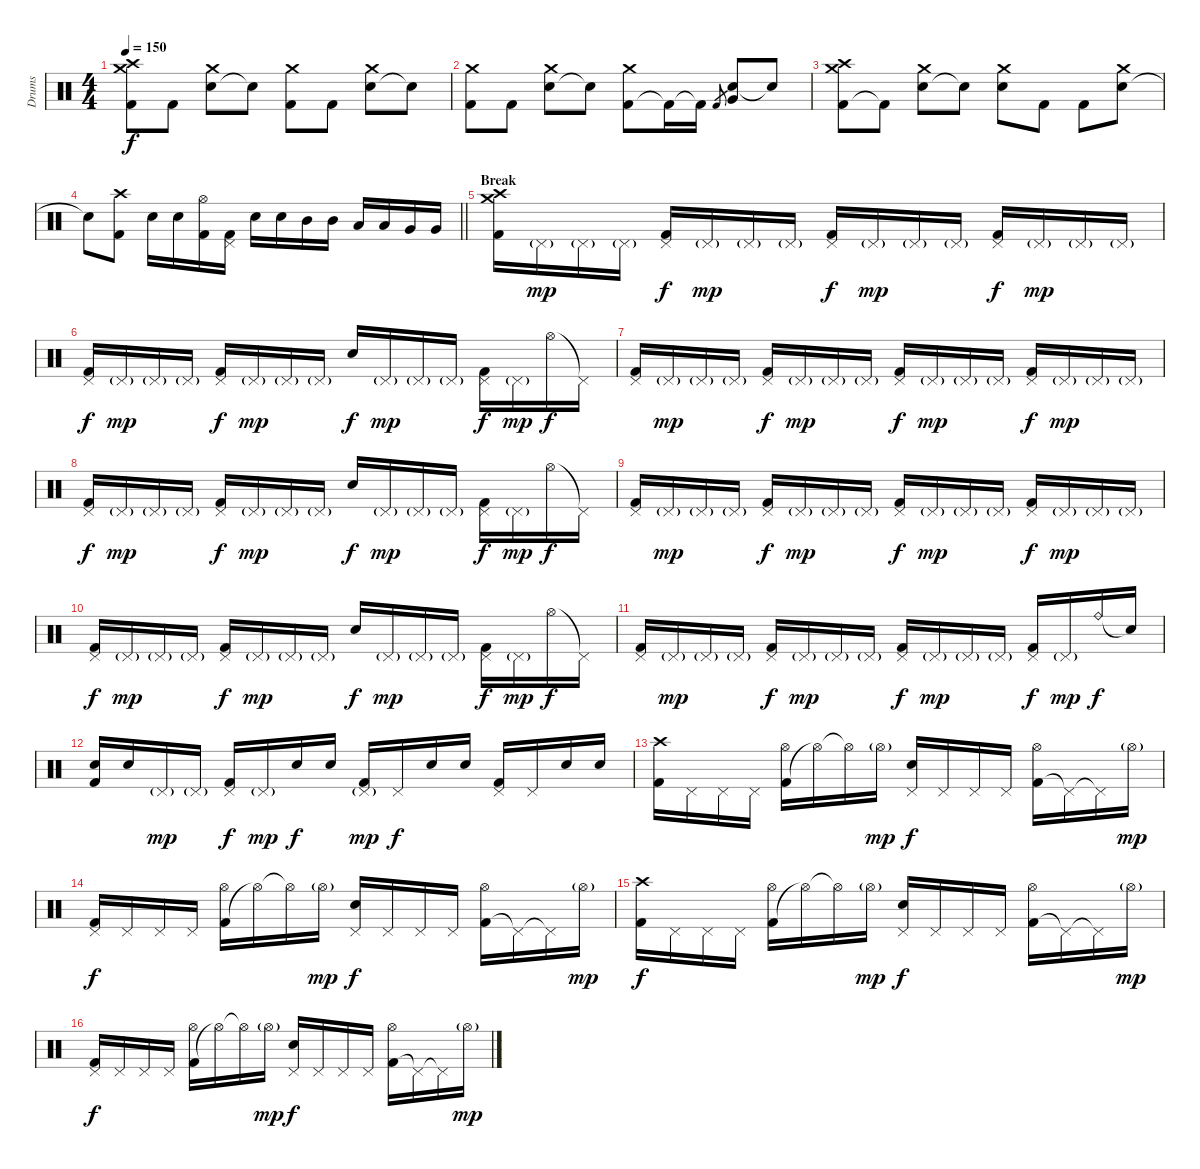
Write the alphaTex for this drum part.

\track ("Drums" "Drums") {instrument percussion}
\staff {score}
\articulation defaults
\ts (4 4)
\tempo 150
\clef neutral
\ks c
("Kick (hit) 2" "Crash medium (hit)" "Crash high (hit)").8{dy f} "Kick (hit) 2".8 ("Electric Snare (hit)" "Crash medium (hit)").8 "Snare (hit)"{t}.8 ("Kick (hit) 2" "Crash medium (hit)").8 "Kick (hit) 2".8 ("Electric Snare (hit)" "Crash medium (hit)").8 "Snare (hit)"{t}.8 |
("Kick (hit) 2" "Crash medium (hit)").8 "Kick (hit) 2".8 ("Electric Snare (hit)" "Crash medium (hit)").8 "Snare (hit)"{t}.8 ("Kick (hit) 2" "Crash medium (hit)").8 "Kick (hit) 2"{t}.16 "Kick (hit) 2"{t}.16 "Kick (hit) 2".8{gr} ("Electric Snare (hit)" "Very Low Tom (hit)").8 "Snare (hit)"{t}.8 |
("Kick (hit) 2" "Crash medium (hit)" "Crash high (hit)").8 "Kick (hit) 2"{t}.8 ("Electric Snare (hit)" "Crash medium (hit)").8 "Snare (hit)"{t}.8 ("Electric Snare (hit)" "Crash medium (hit)").8 "Kick (hit) 2".8 "Kick (hit) 2".8 ("Electric Snare (hit)" "Crash medium (hit)").8 |
\barLineRight lightlight "Snare (hit)"{t}.8
("Kick (hit) 2" "Crash high (hit)").8 "Electric Snare (hit)".16 "Electric Snare (hit)".16 ("Kick (hit) 2" "Hi-Hat (open)").16 ("Kick (hit) 2" "Pedal Hi-Hat (hit)").16 "Electric Snare (hit)".16 "Electric Snare (hit)".16 "Mid Tom (hit)".16 "Mid Tom (hit)".16 "Low Tom (hit)".16 "Low Tom (hit)".16 "Very Low Tom (hit)".16 "Very Low Tom (hit)".16 |
\section ("" "Break")
("Kick (hit) 2" "Crash medium (hit)" "Crash high (hit)").16 "Pedal Hi-Hat (hit)"{g}.16{dy mp} "Pedal Hi-Hat (hit)"{g}.16 "Pedal Hi-Hat (hit)"{g}.16 ("Kick (hit) 2" "Pedal Hi-Hat (hit)").16{dy f} "Pedal Hi-Hat (hit)"{g}.16{dy mp} "Pedal Hi-Hat (hit)"{g}.16 "Pedal Hi-Hat (hit)"{g}.16 ("Kick (hit) 2" "Pedal Hi-Hat (hit)").16{dy f} "Pedal Hi-Hat (hit)"{g}.16{dy mp} "Pedal Hi-Hat (hit)"{g}.16 "Pedal Hi-Hat (hit)"{g}.16 ("Kick (hit) 2" "Pedal Hi-Hat (hit)").16{dy f} "Pedal Hi-Hat (hit)"{g}.16{dy mp} "Pedal Hi-Hat (hit)"{g}.16 "Pedal Hi-Hat (hit)"{g}.16 |
("Kick (hit) 2" "Pedal Hi-Hat (hit)").16{dy f} "Pedal Hi-Hat (hit)"{g}.16{dy mp} "Pedal Hi-Hat (hit)"{g}.16 "Pedal Hi-Hat (hit)"{g}.16 ("Kick (hit) 2" "Pedal Hi-Hat (hit)").16{dy f} "Pedal Hi-Hat (hit)"{g}.16{dy mp} "Pedal Hi-Hat (hit)"{g}.16 "Pedal Hi-Hat (hit)"{g}.16 "Electric Snare (hit)".16{dy f} "Pedal Hi-Hat (hit)"{g}.16{dy mp} "Pedal Hi-Hat (hit)"{g}.16 "Pedal Hi-Hat (hit)"{g}.16 ("Kick (hit) 2" "Pedal Hi-Hat (hit)").16{dy f} "Pedal Hi-Hat (hit)"{g}.16{dy mp} "Hi-Hat (open)".16{dy f} "Pedal Hi-Hat (hit)"{t}.16 |
("Kick (hit) 2" "Pedal Hi-Hat (hit)").16 "Pedal Hi-Hat (hit)"{g}.16{dy mp} "Pedal Hi-Hat (hit)"{g}.16 "Pedal Hi-Hat (hit)"{g}.16 ("Kick (hit) 2" "Pedal Hi-Hat (hit)").16{dy f} "Pedal Hi-Hat (hit)"{g}.16{dy mp} "Pedal Hi-Hat (hit)"{g}.16 "Pedal Hi-Hat (hit)"{g}.16 ("Kick (hit) 2" "Pedal Hi-Hat (hit)").16{dy f} "Pedal Hi-Hat (hit)"{g}.16{dy mp} "Pedal Hi-Hat (hit)"{g}.16 "Pedal Hi-Hat (hit)"{g}.16 ("Kick (hit) 2" "Pedal Hi-Hat (hit)").16{dy f} "Pedal Hi-Hat (hit)"{g}.16{dy mp} "Pedal Hi-Hat (hit)"{g}.16 "Pedal Hi-Hat (hit)"{g}.16 |
("Kick (hit) 2" "Pedal Hi-Hat (hit)").16{dy f} "Pedal Hi-Hat (hit)"{g}.16{dy mp} "Pedal Hi-Hat (hit)"{g}.16 "Pedal Hi-Hat (hit)"{g}.16 ("Kick (hit) 2" "Pedal Hi-Hat (hit)").16{dy f} "Pedal Hi-Hat (hit)"{g}.16{dy mp} "Pedal Hi-Hat (hit)"{g}.16 "Pedal Hi-Hat (hit)"{g}.16 "Electric Snare (hit)".16{dy f} "Pedal Hi-Hat (hit)"{g}.16{dy mp} "Pedal Hi-Hat (hit)"{g}.16 "Pedal Hi-Hat (hit)"{g}.16 ("Kick (hit) 2" "Pedal Hi-Hat (hit)").16{dy f} "Pedal Hi-Hat (hit)"{g}.16{dy mp} "Hi-Hat (open)".16{dy f} "Pedal Hi-Hat (hit)"{t}.16 |
("Kick (hit) 2" "Pedal Hi-Hat (hit)").16 "Pedal Hi-Hat (hit)"{g}.16{dy mp} "Pedal Hi-Hat (hit)"{g}.16 "Pedal Hi-Hat (hit)"{g}.16 ("Kick (hit) 2" "Pedal Hi-Hat (hit)").16{dy f} "Pedal Hi-Hat (hit)"{g}.16{dy mp} "Pedal Hi-Hat (hit)"{g}.16 "Pedal Hi-Hat (hit)"{g}.16 ("Kick (hit) 2" "Pedal Hi-Hat (hit)").16{dy f} "Pedal Hi-Hat (hit)"{g}.16{dy mp} "Pedal Hi-Hat (hit)"{g}.16 "Pedal Hi-Hat (hit)"{g}.16 ("Kick (hit) 2" "Pedal Hi-Hat (hit)").16{dy f} "Pedal Hi-Hat (hit)"{g}.16{dy mp} "Pedal Hi-Hat (hit)"{g}.16 "Pedal Hi-Hat (hit)"{g}.16 |
("Kick (hit) 2" "Pedal Hi-Hat (hit)").16{dy f} "Pedal Hi-Hat (hit)"{g}.16{dy mp} "Pedal Hi-Hat (hit)"{g}.16 "Pedal Hi-Hat (hit)"{g}.16 ("Kick (hit) 2" "Pedal Hi-Hat (hit)").16{dy f} "Pedal Hi-Hat (hit)"{g}.16{dy mp} "Pedal Hi-Hat (hit)"{g}.16 "Pedal Hi-Hat (hit)"{g}.16 "Electric Snare (hit)".16{dy f} "Pedal Hi-Hat (hit)"{g}.16{dy mp} "Pedal Hi-Hat (hit)"{g}.16 "Pedal Hi-Hat (hit)"{g}.16 ("Kick (hit) 2" "Pedal Hi-Hat (hit)").16{dy f} "Pedal Hi-Hat (hit)"{g}.16{dy mp} "Hi-Hat (open)".16{dy f} "Pedal Hi-Hat (hit)"{t}.16 |
("Kick (hit) 2" "Pedal Hi-Hat (hit)").16 "Pedal Hi-Hat (hit)"{g}.16{dy mp} "Pedal Hi-Hat (hit)"{g}.16 "Pedal Hi-Hat (hit)"{g}.16 ("Kick (hit) 2" "Pedal Hi-Hat (hit)").16{dy f} "Pedal Hi-Hat (hit)"{g}.16{dy mp} "Pedal Hi-Hat (hit)"{g}.16 "Pedal Hi-Hat (hit)"{g}.16 ("Kick (hit) 2" "Pedal Hi-Hat (hit)").16{dy f} "Pedal Hi-Hat (hit)"{g}.16{dy mp} "Pedal Hi-Hat (hit)"{g}.16 "Pedal Hi-Hat (hit)"{g}.16 ("Kick (hit) 2" "Pedal Hi-Hat (hit)").16{dy f} "Pedal Hi-Hat (hit)"{g}.16{dy mp} "Ride (bell)".16{dy f} "Snare (hit)"{t}.16 |
("Kick (hit) 2" "Electric Snare (hit)").16 "Electric Snare (hit)".16 "Pedal Hi-Hat (hit)"{g}.16{dy mp} "Pedal Hi-Hat (hit)"{g}.16 ("Kick (hit) 2" "Pedal Hi-Hat (hit)").16{dy f} "Pedal Hi-Hat (hit)"{g}.16{dy mp} "Electric Snare (hit)".16{dy f} "Electric Snare (hit)".16 ("Kick (hit) 2" "Pedal Hi-Hat (hit)"{g}).16{dy mp} "Pedal Hi-Hat (hit)".16{dy f} "Electric Snare (hit)".16 "Electric Snare (hit)".16 ("Kick (hit) 2" "Pedal Hi-Hat (hit)").16 "Pedal Hi-Hat (hit)".16 "Electric Snare (hit)".16 "Electric Snare (hit)".16 |
("Kick (hit) 2" "Crash high (hit)").16 "Pedal Hi-Hat (hit)".16 "Pedal Hi-Hat (hit)".16 "Pedal Hi-Hat (hit)".16 ("Kick (hit) 2" "Hi-Hat (open)").16 "Hi-Hat (open)"{t}.16 "Hi-Hat (open)"{t}.16 "Hi-Hat (open)"{g}.16{dy mp} ("Electric Snare (hit)" "Pedal Hi-Hat (hit)").16{dy f} "Pedal Hi-Hat (hit)".16 "Pedal Hi-Hat (hit)".16 "Pedal Hi-Hat (hit)".16 ("Kick (hit) 2" "Hi-Hat (open)").16 "Pedal Hi-Hat (hit)"{t}.16 "Pedal Hi-Hat (hit)"{t}.16 "Hi-Hat (open)"{g}.16{dy mp} |
("Kick (hit) 2" "Pedal Hi-Hat (hit)").16{dy f} "Pedal Hi-Hat (hit)".16 "Pedal Hi-Hat (hit)".16 "Pedal Hi-Hat (hit)".16 ("Kick (hit) 2" "Hi-Hat (open)").16 "Hi-Hat (open)"{t}.16 "Hi-Hat (open)"{t}.16 "Hi-Hat (open)"{g}.16{dy mp} ("Electric Snare (hit)" "Pedal Hi-Hat (hit)").16{dy f} "Pedal Hi-Hat (hit)".16 "Pedal Hi-Hat (hit)".16 "Pedal Hi-Hat (hit)".16 ("Kick (hit) 2" "Hi-Hat (open)").16 "Pedal Hi-Hat (hit)"{t}.16 "Pedal Hi-Hat (hit)"{t}.16 "Hi-Hat (open)"{g}.16{dy mp} |
("Kick (hit) 2" "Crash high (hit)").16{dy f} "Pedal Hi-Hat (hit)".16 "Pedal Hi-Hat (hit)".16 "Pedal Hi-Hat (hit)".16 ("Kick (hit) 2" "Hi-Hat (open)").16 "Hi-Hat (open)"{t}.16 "Hi-Hat (open)"{t}.16 "Hi-Hat (open)"{g}.16{dy mp} ("Electric Snare (hit)" "Pedal Hi-Hat (hit)").16{dy f} "Pedal Hi-Hat (hit)".16 "Pedal Hi-Hat (hit)".16 "Pedal Hi-Hat (hit)".16 ("Kick (hit) 2" "Hi-Hat (open)").16 "Pedal Hi-Hat (hit)"{t}.16 "Pedal Hi-Hat (hit)"{t}.16 "Hi-Hat (open)"{g}.16{dy mp} |
("Kick (hit) 2" "Pedal Hi-Hat (hit)").16{dy f} "Pedal Hi-Hat (hit)".16 "Pedal Hi-Hat (hit)".16 "Pedal Hi-Hat (hit)".16 ("Kick (hit) 2" "Hi-Hat (open)").16 "Hi-Hat (open)"{t}.16 "Hi-Hat (open)"{t}.16 "Hi-Hat (open)"{g}.16{dy mp} ("Electric Snare (hit)" "Pedal Hi-Hat (hit)").16{dy f} "Pedal Hi-Hat (hit)".16 "Pedal Hi-Hat (hit)".16 "Pedal Hi-Hat (hit)".16 ("Kick (hit) 2" "Hi-Hat (open)").16 "Pedal Hi-Hat (hit)"{t}.16 "Pedal Hi-Hat (hit)"{t}.16 "Hi-Hat (open)"{g}.16{dy mp}
